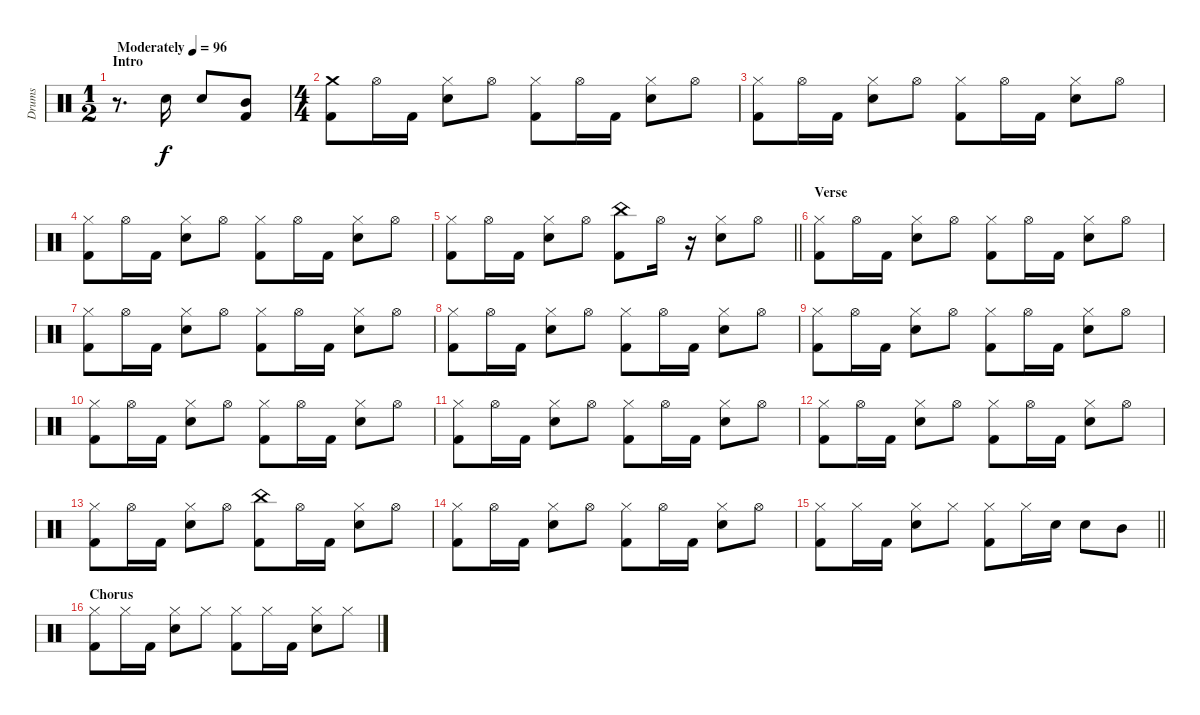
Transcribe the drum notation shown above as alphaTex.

\track ("Drums" "Drums") {instrument percussion}
\staff {score}
\articulation defaults
\ts (1 2)
\section ("" "Intro")
\tempo (96 "Moderately")
\clef neutral
\ks c
r.8{d dy f} "Electric Snare (hit)".16 "Electric Snare (hit)".8 ("Mid Tom (hit)" "Kick (hit) 2").8 |
\ts (4 4)
("Crash medium (hit)" "Kick (hit) 2").8 "Hi-Hat (open)".16 "Kick (hit) 2".16 ("Hi-Hat (closed)" "Electric Snare (hit)").8 "Hi-Hat (open)".8 ("Hi-Hat (closed)" "Kick (hit) 2").8 "Hi-Hat (open)".16 "Kick (hit) 2".16 ("Hi-Hat (closed)" "Electric Snare (hit)").8 "Hi-Hat (open)".8 |
("Hi-Hat (closed)" "Kick (hit) 2").8 "Hi-Hat (open)".16 "Kick (hit) 2".16 ("Hi-Hat (closed)" "Electric Snare (hit)").8 "Hi-Hat (open)".8 ("Hi-Hat (closed)" "Kick (hit) 2").8 "Hi-Hat (open)".16 "Kick (hit) 2".16 ("Hi-Hat (closed)" "Electric Snare (hit)").8 "Hi-Hat (open)".8 |
("Hi-Hat (closed)" "Kick (hit) 2").8 "Hi-Hat (open)".16 "Kick (hit) 2".16 ("Hi-Hat (closed)" "Electric Snare (hit)").8 "Hi-Hat (open)".8 ("Hi-Hat (closed)" "Kick (hit) 2").8 "Hi-Hat (open)".16 "Kick (hit) 2".16 ("Hi-Hat (closed)" "Electric Snare (hit)").8 "Hi-Hat (open)".8 |
\barLineRight lightlight
("Hi-Hat (closed)" "Kick (hit) 2").8 "Hi-Hat (open)".16 "Kick (hit) 2".16 ("Hi-Hat (closed)" "Electric Snare (hit)").8 "Hi-Hat (open)".8 ("China (hit)" "Kick (hit) 2").8 "Hi-Hat (open)".16 r.16 ("Hi-Hat (closed)" "Electric Snare (hit)").8 "Hi-Hat (open)".8 |
\section ("" "Verse")
("Hi-Hat (closed)" "Kick (hit) 2").8 "Hi-Hat (open)".16 "Kick (hit) 2".16 ("Hi-Hat (closed)" "Electric Snare (hit)").8 "Hi-Hat (open)".8 ("Hi-Hat (closed)" "Kick (hit) 2").8 "Hi-Hat (open)".16 "Kick (hit) 2".16 ("Hi-Hat (closed)" "Electric Snare (hit)").8 "Hi-Hat (open)".8 |
("Hi-Hat (closed)" "Kick (hit) 2").8 "Hi-Hat (open)".16 "Kick (hit) 2".16 ("Hi-Hat (closed)" "Electric Snare (hit)").8 "Hi-Hat (open)".8 ("Hi-Hat (closed)" "Kick (hit) 2").8 "Hi-Hat (open)".16 "Kick (hit) 2".16 ("Hi-Hat (closed)" "Electric Snare (hit)").8 "Hi-Hat (open)".8 |
("Hi-Hat (closed)" "Kick (hit) 2").8 "Hi-Hat (open)".16 "Kick (hit) 2".16 ("Hi-Hat (closed)" "Electric Snare (hit)").8 "Hi-Hat (open)".8 ("Hi-Hat (closed)" "Kick (hit) 2").8 "Hi-Hat (open)".16 "Kick (hit) 2".16 ("Hi-Hat (closed)" "Electric Snare (hit)").8 "Hi-Hat (open)".8 |
("Hi-Hat (closed)" "Kick (hit) 2").8 "Hi-Hat (open)".16 "Kick (hit) 2".16 ("Hi-Hat (closed)" "Electric Snare (hit)").8 "Hi-Hat (open)".8 ("Hi-Hat (closed)" "Kick (hit) 2").8 "Hi-Hat (open)".16 "Kick (hit) 2".16 ("Hi-Hat (closed)" "Electric Snare (hit)").8 "Hi-Hat (open)".8 |
("Hi-Hat (closed)" "Kick (hit) 2").8 "Hi-Hat (open)".16 "Kick (hit) 2".16 ("Hi-Hat (closed)" "Electric Snare (hit)").8 "Hi-Hat (open)".8 ("Hi-Hat (closed)" "Kick (hit) 2").8 "Hi-Hat (open)".16 "Kick (hit) 2".16 ("Hi-Hat (closed)" "Electric Snare (hit)").8 "Hi-Hat (open)".8 |
("Hi-Hat (closed)" "Kick (hit) 2").8 "Hi-Hat (open)".16 "Kick (hit) 2".16 ("Hi-Hat (closed)" "Electric Snare (hit)").8 "Hi-Hat (open)".8 ("Hi-Hat (closed)" "Kick (hit) 2").8 "Hi-Hat (open)".16 "Kick (hit) 2".16 ("Hi-Hat (closed)" "Electric Snare (hit)").8 "Hi-Hat (open)".8 |
("Hi-Hat (closed)" "Kick (hit) 2").8 "Hi-Hat (open)".16 "Kick (hit) 2".16 ("Hi-Hat (closed)" "Electric Snare (hit)").8 "Hi-Hat (open)".8 ("Hi-Hat (closed)" "Kick (hit) 2").8 "Hi-Hat (open)".16 "Kick (hit) 2".16 ("Hi-Hat (closed)" "Electric Snare (hit)").8 "Hi-Hat (open)".8 |
("Hi-Hat (closed)" "Kick (hit) 2").8 "Hi-Hat (open)".16 "Kick (hit) 2".16 ("Hi-Hat (closed)" "Electric Snare (hit)").8 "Hi-Hat (open)".8 ("China (hit)" "Kick (hit) 2").8 "Hi-Hat (open)".16 "Kick (hit) 2".16 ("Hi-Hat (closed)" "Electric Snare (hit)").8 "Hi-Hat (open)".8 |
("Hi-Hat (closed)" "Kick (hit) 2").8 "Hi-Hat (open)".16 "Kick (hit) 2".16 ("Hi-Hat (closed)" "Electric Snare (hit)").8 "Hi-Hat (open)".8 ("Hi-Hat (closed)" "Kick (hit) 2").8 "Hi-Hat (open)".16 "Kick (hit) 2".16 ("Hi-Hat (closed)" "Electric Snare (hit)").8 "Hi-Hat (open)".8 |
\barLineRight lightlight
("Hi-Hat (closed)" "Kick (hit) 2").8 "Hi-Hat (closed)".16 "Kick (hit) 2".16 ("Hi-Hat (closed)" "Electric Snare (hit)").8 "Hi-Hat (closed)".8 ("Hi-Hat (closed)" "Kick (hit) 2").8 "Hi-Hat (closed)".16 "Electric Snare (hit)".16 "Electric Snare (hit)".8 "Mid Tom (hit)".8 |
\section ("" "Chorus")
("Hi-Hat (closed)" "Kick (hit) 2").8 "Hi-Hat (closed)".16 "Kick (hit) 2".16 ("Hi-Hat (closed)" "Electric Snare (hit)").8 "Hi-Hat (closed)".8 ("Hi-Hat (closed)" "Kick (hit) 2").8 "Hi-Hat (closed)".16 "Kick (hit) 2".16 ("Hi-Hat (closed)" "Electric Snare (hit)").8 "Hi-Hat (closed)".8
